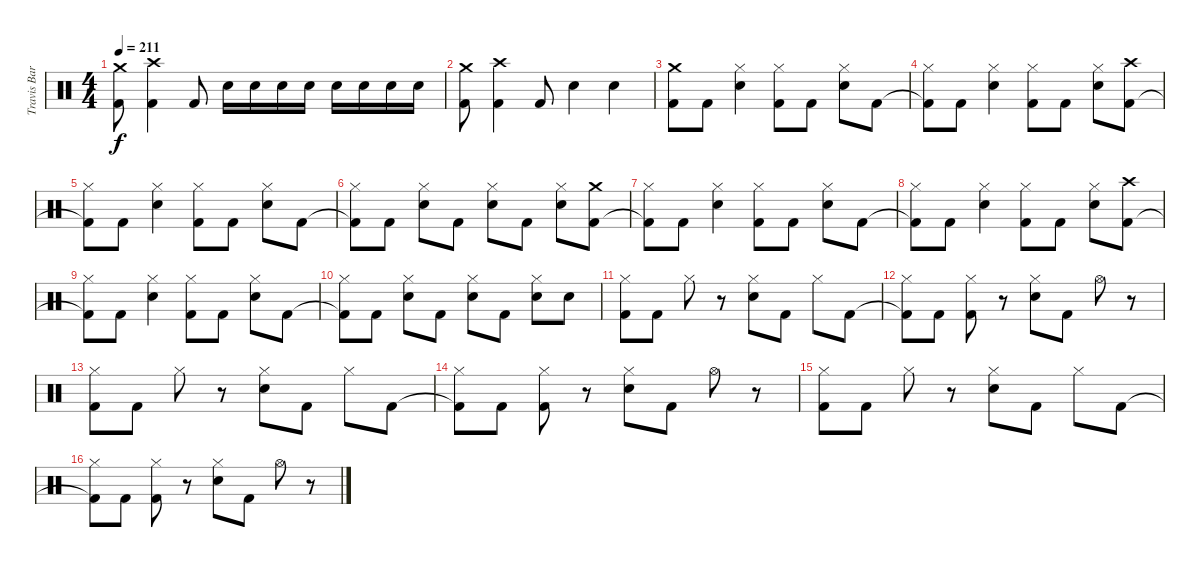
\track ("Travis Barker (Drums)" "Travis Bar") {instrument percussion}
\staff {score}
\articulation defaults
\ts (4 4)
\tempo 211
\clef neutral
\ks c
("Kick (hit) 2" "Crash medium (hit)").8{dy f} ("Kick (hit) 2" "Crash high (hit)").4 "Kick (hit) 2".8 "Electric Snare (hit)".16 "Electric Snare (hit)".16 "Electric Snare (hit)".16 "Electric Snare (hit)".16 "Electric Snare (hit)".16 "Electric Snare (hit)".16 "Electric Snare (hit)".16 "Electric Snare (hit)".16 |
("Kick (hit) 2" "Crash medium (hit)").8 ("Kick (hit) 2" "Crash high (hit)").4 "Kick (hit) 2".8 "Electric Snare (hit)".4 "Electric Snare (hit)".4 |
("Kick (hit) 2" "Crash medium (hit)").8 "Kick (hit) 2".8 ("Electric Snare (hit)" "Hi-Hat (closed)").4 ("Kick (hit) 2" "Hi-Hat (closed)").8 "Kick (hit) 2".8 ("Electric Snare (hit)" "Hi-Hat (closed)").8 "Kick (hit) 2".8 |
("Kick (hit) 2"{t} "Hi-Hat (closed)").8 "Kick (hit) 2".8 ("Electric Snare (hit)" "Hi-Hat (closed)").4 ("Kick (hit) 2" "Hi-Hat (closed)").8 "Kick (hit) 2".8 ("Electric Snare (hit)" "Hi-Hat (closed)").8 ("Kick (hit) 2" "Crash high (hit)").8 |
("Kick (hit) 2"{t} "Hi-Hat (closed)").8 "Kick (hit) 2".8 ("Electric Snare (hit)" "Hi-Hat (closed)").4 ("Kick (hit) 2" "Hi-Hat (closed)").8 "Kick (hit) 2".8 ("Electric Snare (hit)" "Hi-Hat (closed)").8 "Kick (hit) 2".8 |
("Kick (hit) 2"{t} "Hi-Hat (closed)").8 "Kick (hit) 2".8 ("Electric Snare (hit)" "Hi-Hat (closed)").8 "Kick (hit) 2".8 ("Electric Snare (hit)" "Hi-Hat (closed)").8 "Kick (hit) 2".8 ("Electric Snare (hit)" "Hi-Hat (closed)").8 ("Kick (hit) 2" "Crash medium (hit)").8 |
("Kick (hit) 2"{t} "Hi-Hat (closed)").8 "Kick (hit) 2".8 ("Electric Snare (hit)" "Hi-Hat (closed)").4 ("Kick (hit) 2" "Hi-Hat (closed)").8 "Kick (hit) 2".8 ("Electric Snare (hit)" "Hi-Hat (closed)").8 "Kick (hit) 2".8 |
("Kick (hit) 2"{t} "Hi-Hat (closed)").8 "Kick (hit) 2".8 ("Electric Snare (hit)" "Hi-Hat (closed)").4 ("Kick (hit) 2" "Hi-Hat (closed)").8 "Kick (hit) 2".8 ("Electric Snare (hit)" "Hi-Hat (closed)").8 ("Kick (hit) 2" "Crash high (hit)").8 |
("Kick (hit) 2"{t} "Hi-Hat (closed)").8 "Kick (hit) 2".8 ("Electric Snare (hit)" "Hi-Hat (closed)").4 ("Kick (hit) 2" "Hi-Hat (closed)").8 "Kick (hit) 2".8 ("Electric Snare (hit)" "Hi-Hat (closed)").8 "Kick (hit) 2".8 |
("Kick (hit) 2"{t} "Hi-Hat (closed)").8 "Kick (hit) 2".8 ("Electric Snare (hit)" "Hi-Hat (closed)").8 "Kick (hit) 2".8 ("Electric Snare (hit)" "Hi-Hat (closed)").8 "Kick (hit) 2".8 ("Electric Snare (hit)" "Hi-Hat (closed)").8 "Electric Snare (hit)".8 |
("Kick (hit) 2" "Hi-Hat (closed)").8 "Kick (hit) 2".8 "Hi-Hat (closed)".8 r.8 ("Electric Snare (hit)" "Hi-Hat (closed)").8 "Kick (hit) 2".8 "Hi-Hat (closed)".8 "Kick (hit) 2".8 |
("Kick (hit) 2"{t} "Hi-Hat (closed)").8 "Kick (hit) 2".8 ("Kick (hit) 2" "Hi-Hat (closed)").8 r.8 ("Electric Snare (hit)" "Hi-Hat (closed)").8 "Kick (hit) 2".8 "Hi-Hat (open)".8 r.8 |
("Kick (hit) 2" "Hi-Hat (closed)").8 "Kick (hit) 2".8 "Hi-Hat (closed)".8 r.8 ("Electric Snare (hit)" "Hi-Hat (closed)").8 "Kick (hit) 2".8 "Hi-Hat (closed)".8 "Kick (hit) 2".8 |
("Kick (hit) 2"{t} "Hi-Hat (closed)").8 "Kick (hit) 2".8 ("Kick (hit) 2" "Hi-Hat (closed)").8 r.8 ("Electric Snare (hit)" "Hi-Hat (closed)").8 "Kick (hit) 2".8 "Hi-Hat (open)".8 r.8 |
("Kick (hit) 2" "Hi-Hat (closed)").8 "Kick (hit) 2".8 "Hi-Hat (closed)".8 r.8 ("Electric Snare (hit)" "Hi-Hat (closed)").8 "Kick (hit) 2".8 "Hi-Hat (closed)".8 "Kick (hit) 2".8 |
("Kick (hit) 2"{t} "Hi-Hat (closed)").8 "Kick (hit) 2".8 ("Kick (hit) 2" "Hi-Hat (closed)").8 r.8 ("Electric Snare (hit)" "Hi-Hat (closed)").8 "Kick (hit) 2".8 "Hi-Hat (open)".8 r.8
